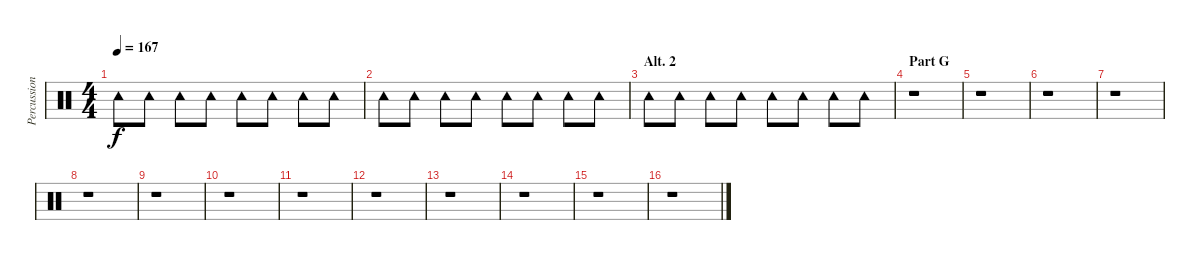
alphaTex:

\track ("Percussion" "Percussion") {instrument percussion}
\staff {score}
\articulation defaults
\ts (4 4)
\tempo 167
\clef neutral
\ks c "Tambourine (hit)".8{dy f} "Tambourine (hit)".8 "Tambourine (hit)".8 "Tambourine (hit)".8 "Tambourine (hit)".8 "Tambourine (hit)".8 "Tambourine (hit)".8 "Tambourine (hit)".8
|
"Tambourine (hit)".8 "Tambourine (hit)".8 "Tambourine (hit)".8 "Tambourine (hit)".8 "Tambourine (hit)".8 "Tambourine (hit)".8 "Tambourine (hit)".8 "Tambourine (hit)".8 |
\section ("" "Alt. 2")
"Tambourine (hit)".8 "Tambourine (hit)".8 "Tambourine (hit)".8 "Tambourine (hit)".8 "Tambourine (hit)".8 "Tambourine (hit)".8 "Tambourine (hit)".8 "Tambourine (hit)".8 |
\section ("" "Part G")
r.1 |
r.1 |
r.1 |
r.1 |
r.1 |
r.1 |
r.1 |
r.1 |
r.1 |
r.1 |
r.1 |
r.1 |
r.1
